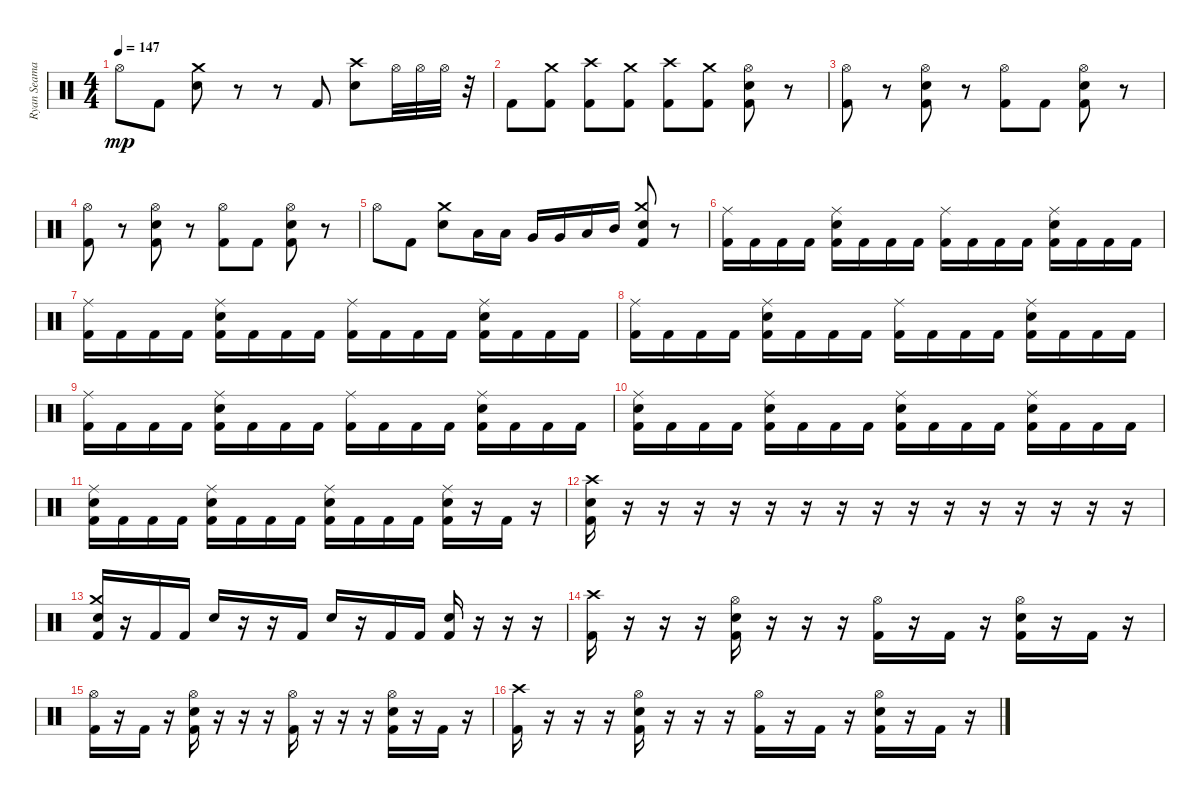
\track ("Ryan Seaman - Drum" "Ryan Seama") {instrument percussion}
\staff {score}
\articulation defaults
\ts (4 4)
\tempo 147
\clef neutral
\ks c "Hi-Hat (open)".8{dy mp} "Kick (hit) 2".8
("Crash medium (hit)" "Electric Snare (hit)").8 r.8 r.8 "Kick (hit) 2".8 ("Crash high (hit)" "Electric Snare (hit)").8 "Hi-Hat (open)".32 "Hi-Hat (open)".32 "Hi-Hat (open)".32 r.32 |
"Kick (hit) 2".8 ("Crash medium (hit)" "Kick (hit) 2").8 ("Crash high (hit)" "Kick (hit) 2").8 ("Crash medium (hit)" "Kick (hit) 2").8 ("Crash high (hit)" "Kick (hit) 2").8 ("Crash medium (hit)" "Kick (hit) 2").8 ("Hi-Hat (open)" "Electric Snare (hit)" "Kick (hit) 2").8 r.8 |
("Hi-Hat (open)" "Kick (hit) 2").8 r.8 ("Hi-Hat (open)" "Electric Snare (hit)" "Kick (hit) 2").8 r.8 ("Hi-Hat (open)" "Kick (hit) 2").8 "Kick (hit) 2".8 ("Hi-Hat (open)" "Electric Snare (hit)" "Kick (hit) 2").8 r.8 |
("Hi-Hat (open)" "Kick (hit) 2").8 r.8 ("Hi-Hat (open)" "Electric Snare (hit)" "Kick (hit) 2").8 r.8 ("Hi-Hat (open)" "Kick (hit) 2").8 "Kick (hit) 2".8 ("Hi-Hat (open)" "Electric Snare (hit)" "Kick (hit) 2").8 r.8 |
"Hi-Hat (open)".8 "Kick (hit) 2".8 ("Crash medium (hit)" "Electric Snare (hit)").8 "Low Floor Tom (hit)".16 "Low Floor Tom (hit)".16 "Very Low Tom (hit)".16 "Very Low Tom (hit)".16 "Low Tom (hit)".16 "Mid Tom (hit)".16 ("Crash medium (hit)" "Electric Snare (hit)" "Kick (hit) 2").8 r.8 |
("Ride (middle)" "Kick (hit) 2").16 "Kick (hit) 2".16 "Kick (hit) 2".16 "Kick (hit) 2".16 ("Ride (middle)" "Electric Snare (hit)" "Kick (hit) 2").16 "Kick (hit) 2".16 "Kick (hit) 2".16 "Kick (hit) 2".16 ("Ride (middle)" "Kick (hit) 2").16 "Kick (hit) 2".16 "Kick (hit) 2".16 "Kick (hit) 2".16 ("Ride (middle)" "Electric Snare (hit)" "Kick (hit) 2").16 "Kick (hit) 2".16 "Kick (hit) 2".16 "Kick (hit) 2".16 |
("Ride (middle)" "Kick (hit) 2").16 "Kick (hit) 2".16 "Kick (hit) 2".16 "Kick (hit) 2".16 ("Ride (middle)" "Electric Snare (hit)" "Kick (hit) 2").16 "Kick (hit) 2".16 "Kick (hit) 2".16 "Kick (hit) 2".16 ("Ride (middle)" "Kick (hit) 2").16 "Kick (hit) 2".16 "Kick (hit) 2".16 "Kick (hit) 2".16 ("Ride (middle)" "Electric Snare (hit)" "Kick (hit) 2").16 "Kick (hit) 2".16 "Kick (hit) 2".16 "Kick (hit) 2".16 |
("Ride (middle)" "Kick (hit) 2").16 "Kick (hit) 2".16 "Kick (hit) 2".16 "Kick (hit) 2".16 ("Ride (middle)" "Electric Snare (hit)" "Kick (hit) 2").16 "Kick (hit) 2".16 "Kick (hit) 2".16 "Kick (hit) 2".16 ("Ride (middle)" "Kick (hit) 2").16 "Kick (hit) 2".16 "Kick (hit) 2".16 "Kick (hit) 2".16 ("Ride (middle)" "Electric Snare (hit)" "Kick (hit) 2").16 "Kick (hit) 2".16 "Kick (hit) 2".16 "Kick (hit) 2".16 |
("Ride (middle)" "Kick (hit) 2").16 "Kick (hit) 2".16 "Kick (hit) 2".16 "Kick (hit) 2".16 ("Ride (middle)" "Electric Snare (hit)" "Kick (hit) 2").16 "Kick (hit) 2".16 "Kick (hit) 2".16 "Kick (hit) 2".16 ("Ride (middle)" "Kick (hit) 2").16 "Kick (hit) 2".16 "Kick (hit) 2".16 "Kick (hit) 2".16 ("Ride (middle)" "Electric Snare (hit)" "Kick (hit) 2").16 "Kick (hit) 2".16 "Kick (hit) 2".16 "Kick (hit) 2".16 |
("Ride (middle)" "Electric Snare (hit)" "Kick (hit) 2").16 "Kick (hit) 2".16 "Kick (hit) 2".16 "Kick (hit) 2".16 ("Ride (middle)" "Electric Snare (hit)" "Kick (hit) 2").16 "Kick (hit) 2".16 "Kick (hit) 2".16 "Kick (hit) 2".16 ("Ride (middle)" "Electric Snare (hit)" "Kick (hit) 2").16 "Kick (hit) 2".16 "Kick (hit) 2".16 "Kick (hit) 2".16 ("Ride (middle)" "Electric Snare (hit)" "Kick (hit) 2").16 "Kick (hit) 2".16 "Kick (hit) 2".16 "Kick (hit) 2".16 |
("Ride (middle)" "Electric Snare (hit)" "Kick (hit) 2").16 "Kick (hit) 2".16 "Kick (hit) 2".16 "Kick (hit) 2".16 ("Ride (middle)" "Electric Snare (hit)" "Kick (hit) 2").16 "Kick (hit) 2".16 "Kick (hit) 2".16 "Kick (hit) 2".16 ("Ride (middle)" "Electric Snare (hit)" "Kick (hit) 2").16 "Kick (hit) 2".16 "Kick (hit) 2".16 "Kick (hit) 2".16 ("Ride (middle)" "Electric Snare (hit)" "Kick (hit) 2").16 r.16 "Kick (hit) 2".16 r.16 |
("Crash high (hit)" "Electric Snare (hit)" "Kick (hit) 2").16 r.16 r.16 r.16 r.16 r.16 r.16 r.16 r.16 r.16 r.16 r.16 r.16 r.16 r.16 r.16 |
("Crash medium (hit)" "Electric Snare (hit)" "Kick (hit) 2").16 r.16 "Kick (hit) 2".16 "Kick (hit) 2".16 "Electric Snare (hit)".16 r.16 r.16 "Kick (hit) 2".16 "Electric Snare (hit)".16 r.16 "Kick (hit) 2".16 "Kick (hit) 2".16 ("Electric Snare (hit)" "Kick (hit) 2").16 r.16 r.16 r.16 |
("Crash high (hit)" "Kick (hit) 2").16 r.16 r.16 r.16 ("Hi-Hat (open)" "Electric Snare (hit)" "Kick (hit) 2").16 r.16 r.16 r.16 ("Hi-Hat (open)" "Kick (hit) 2").16 r.16 "Kick (hit) 2".16 r.16 ("Hi-Hat (open)" "Electric Snare (hit)" "Kick (hit) 2").16 r.16 "Kick (hit) 2".16 r.16 |
("Hi-Hat (open)" "Kick (hit) 2").16 r.16 "Kick (hit) 2".16 r.16 ("Hi-Hat (open)" "Electric Snare (hit)" "Kick (hit) 2").16 r.16 r.16 r.16 ("Hi-Hat (open)" "Kick (hit) 2").16 r.16 r.16 r.16 ("Hi-Hat (open)" "Electric Snare (hit)" "Kick (hit) 2").16 r.16 "Kick (hit) 2".16 r.16 |
("Crash high (hit)" "Kick (hit) 2").16 r.16 r.16 r.16 ("Hi-Hat (open)" "Electric Snare (hit)" "Kick (hit) 2").16 r.16 r.16 r.16 ("Hi-Hat (open)" "Kick (hit) 2").16 r.16 "Kick (hit) 2".16 r.16 ("Hi-Hat (open)" "Electric Snare (hit)" "Kick (hit) 2").16 r.16 "Kick (hit) 2".16 r.16
